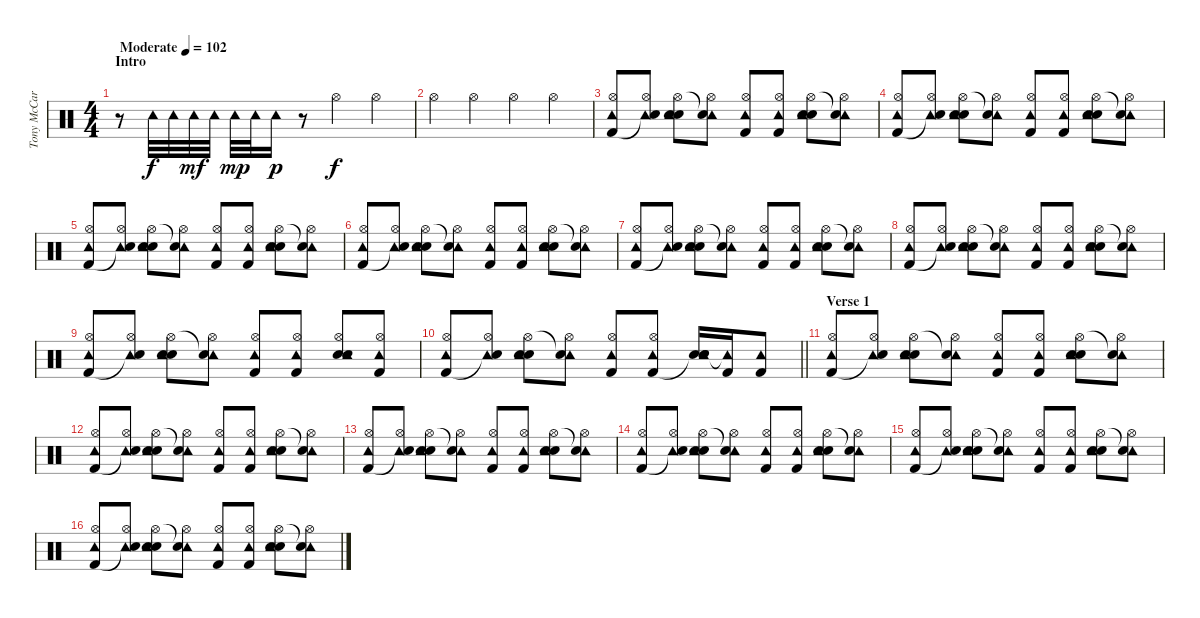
\track ("Tony McCaroll" "Tony McCar") {instrument percussion}
\staff {score}
\articulation defaults
\ts (4 4)
\section ("" "Intro")
\tempo (102 "Moderate")
\clef neutral
\ks c
r.8{dy f} "Tambourine (hit)".32 "Tambourine (hit)".32 "Tambourine (hit)".32{dy mf} "Tambourine (hit)".32 "Tambourine (hit)".32{dy mp} "Tambourine (hit)".32 "Tambourine (hit)".16{dy p} r.8 "Hi-Hat (open)".4{dy f} "Hi-Hat (open)".4 |
"Hi-Hat (open)".4 "Hi-Hat (open)".4 "Hi-Hat (open)".4 "Hi-Hat (open)".4 |
("Tambourine (hit)" "Hi-Hat (open)" "Kick (hit) 2").8 ("Tambourine (hit)" "Hi-Hat (open)" "Snare (hit)"{t}).8 ("Hand Clap (hit)" "Tambourine (hit)" "Hi-Hat (open)" "Electric Snare (hit)").8 ("Tambourine (hit)" "Hi-Hat (open)" "Snare (hit)"{t}).8 ("Tambourine (hit)" "Hi-Hat (open)" "Kick (hit) 2").8 ("Tambourine (hit)" "Hi-Hat (open)" "Kick (hit) 2").8 ("Hand Clap (hit)" "Tambourine (hit)" "Hi-Hat (open)" "Electric Snare (hit)").8 ("Tambourine (hit)" "Hi-Hat (open)" "Snare (hit)"{t}).8 |
("Tambourine (hit)" "Hi-Hat (open)" "Kick (hit) 2").8 ("Tambourine (hit)" "Hi-Hat (open)" "Snare (hit)"{t}).8 ("Hand Clap (hit)" "Tambourine (hit)" "Hi-Hat (open)" "Electric Snare (hit)").8 ("Tambourine (hit)" "Hi-Hat (open)" "Snare (hit)"{t}).8 ("Tambourine (hit)" "Hi-Hat (open)" "Kick (hit) 2").8 ("Tambourine (hit)" "Hi-Hat (open)" "Kick (hit) 2").8 ("Hand Clap (hit)" "Tambourine (hit)" "Hi-Hat (open)" "Electric Snare (hit)").8 ("Tambourine (hit)" "Hi-Hat (open)" "Snare (hit)"{t}).8 |
("Tambourine (hit)" "Hi-Hat (open)" "Kick (hit) 2").8 ("Tambourine (hit)" "Hi-Hat (open)" "Snare (hit)"{t}).8 ("Hand Clap (hit)" "Tambourine (hit)" "Hi-Hat (open)" "Electric Snare (hit)").8 ("Tambourine (hit)" "Hi-Hat (open)" "Snare (hit)"{t}).8 ("Tambourine (hit)" "Hi-Hat (open)" "Kick (hit) 2").8 ("Tambourine (hit)" "Hi-Hat (open)" "Kick (hit) 2").8 ("Hand Clap (hit)" "Tambourine (hit)" "Hi-Hat (open)" "Electric Snare (hit)").8 ("Tambourine (hit)" "Hi-Hat (open)" "Snare (hit)"{t}).8 |
("Tambourine (hit)" "Hi-Hat (open)" "Kick (hit) 2").8 ("Tambourine (hit)" "Hi-Hat (open)" "Snare (hit)"{t}).8 ("Hand Clap (hit)" "Tambourine (hit)" "Hi-Hat (open)" "Electric Snare (hit)").8 ("Tambourine (hit)" "Hi-Hat (open)" "Snare (hit)"{t}).8 ("Tambourine (hit)" "Hi-Hat (open)" "Kick (hit) 2").8 ("Tambourine (hit)" "Hi-Hat (open)" "Kick (hit) 2").8 ("Hand Clap (hit)" "Tambourine (hit)" "Hi-Hat (open)" "Electric Snare (hit)").8 ("Tambourine (hit)" "Hi-Hat (open)" "Snare (hit)"{t}).8 |
("Tambourine (hit)" "Hi-Hat (open)" "Kick (hit) 2").8 ("Tambourine (hit)" "Hi-Hat (open)" "Snare (hit)"{t}).8 ("Hand Clap (hit)" "Tambourine (hit)" "Hi-Hat (open)" "Electric Snare (hit)").8 ("Tambourine (hit)" "Hi-Hat (open)" "Snare (hit)"{t}).8 ("Tambourine (hit)" "Hi-Hat (open)" "Kick (hit) 2").8 ("Tambourine (hit)" "Hi-Hat (open)" "Kick (hit) 2").8 ("Hand Clap (hit)" "Tambourine (hit)" "Hi-Hat (open)" "Electric Snare (hit)").8 ("Tambourine (hit)" "Hi-Hat (open)" "Snare (hit)"{t}).8 |
("Tambourine (hit)" "Hi-Hat (open)" "Kick (hit) 2").8 ("Tambourine (hit)" "Hi-Hat (open)" "Snare (hit)"{t}).8 ("Hand Clap (hit)" "Tambourine (hit)" "Hi-Hat (open)" "Electric Snare (hit)").8 ("Tambourine (hit)" "Hi-Hat (open)" "Snare (hit)"{t}).8 ("Tambourine (hit)" "Hi-Hat (open)" "Kick (hit) 2").8 ("Tambourine (hit)" "Hi-Hat (open)" "Kick (hit) 2").8 ("Hand Clap (hit)" "Tambourine (hit)" "Hi-Hat (open)" "Electric Snare (hit)").8 ("Tambourine (hit)" "Hi-Hat (open)" "Snare (hit)"{t}).8 |
("Tambourine (hit)" "Hi-Hat (open)" "Kick (hit) 2").8 ("Tambourine (hit)" "Hi-Hat (open)" "Snare (hit)"{t}).8 ("Hand Clap (hit)" "Tambourine (hit)" "Hi-Hat (open)" "Electric Snare (hit)").8 ("Tambourine (hit)" "Hi-Hat (open)" "Snare (hit)"{t}).8 ("Tambourine (hit)" "Hi-Hat (open)" "Kick (hit) 2").8 ("Tambourine (hit)" "Hi-Hat (open)" "Kick (hit) 2").8 ("Hand Clap (hit)" "Tambourine (hit)" "Hi-Hat (open)" "Electric Snare (hit)").8 ("Tambourine (hit)" "Hi-Hat (open)" "Kick (hit) 2").8 |
\barLineRight lightlight
("Tambourine (hit)" "Hi-Hat (open)" "Kick (hit) 2").8 ("Tambourine (hit)" "Hi-Hat (open)" "Snare (hit)"{t}).8 ("Hand Clap (hit)" "Tambourine (hit)" "Hi-Hat (open)" "Electric Snare (hit)").8 ("Tambourine (hit)" "Hi-Hat (open)" "Snare (hit)"{t}).8 ("Tambourine (hit)" "Hi-Hat (open)" "Kick (hit) 2").8 ("Tambourine (hit)" "Hi-Hat (open)" "Kick (hit) 2").8 ("Hand Clap (hit)" "Tambourine (hit)" "Electric Snare (hit)"{t} "Electric Snare (hit)").16 ("Tambourine (hit)"{t} "Kick (hit) 2").16 ("Tambourine (hit)" "Kick (hit) 2").8 |
\section ("" "Verse 1")
("Tambourine (hit)" "Hi-Hat (open)" "Kick (hit) 2").8 ("Tambourine (hit)" "Hi-Hat (open)" "Snare (hit)"{t}).8 ("Hand Clap (hit)" "Tambourine (hit)" "Hi-Hat (open)" "Electric Snare (hit)").8 ("Tambourine (hit)" "Hi-Hat (open)" "Snare (hit)"{t}).8 ("Tambourine (hit)" "Hi-Hat (open)" "Kick (hit) 2").8 ("Tambourine (hit)" "Hi-Hat (open)" "Kick (hit) 2").8 ("Hand Clap (hit)" "Tambourine (hit)" "Hi-Hat (open)" "Electric Snare (hit)").8 ("Tambourine (hit)" "Hi-Hat (open)" "Snare (hit)"{t}).8 |
("Tambourine (hit)" "Hi-Hat (open)" "Kick (hit) 2").8 ("Tambourine (hit)" "Hi-Hat (open)" "Snare (hit)"{t}).8 ("Hand Clap (hit)" "Tambourine (hit)" "Hi-Hat (open)" "Electric Snare (hit)").8 ("Tambourine (hit)" "Hi-Hat (open)" "Snare (hit)"{t}).8 ("Tambourine (hit)" "Hi-Hat (open)" "Kick (hit) 2").8 ("Tambourine (hit)" "Hi-Hat (open)" "Kick (hit) 2").8 ("Hand Clap (hit)" "Tambourine (hit)" "Hi-Hat (open)" "Electric Snare (hit)").8 ("Tambourine (hit)" "Hi-Hat (open)" "Snare (hit)"{t}).8 |
("Tambourine (hit)" "Hi-Hat (open)" "Kick (hit) 2").8 ("Tambourine (hit)" "Hi-Hat (open)" "Snare (hit)"{t}).8 ("Hand Clap (hit)" "Tambourine (hit)" "Hi-Hat (open)" "Electric Snare (hit)").8 ("Tambourine (hit)" "Hi-Hat (open)" "Snare (hit)"{t}).8 ("Tambourine (hit)" "Hi-Hat (open)" "Kick (hit) 2").8 ("Tambourine (hit)" "Hi-Hat (open)" "Kick (hit) 2").8 ("Hand Clap (hit)" "Tambourine (hit)" "Hi-Hat (open)" "Electric Snare (hit)").8 ("Tambourine (hit)" "Hi-Hat (open)" "Snare (hit)"{t}).8 |
("Tambourine (hit)" "Hi-Hat (open)" "Kick (hit) 2").8 ("Tambourine (hit)" "Hi-Hat (open)" "Snare (hit)"{t}).8 ("Hand Clap (hit)" "Tambourine (hit)" "Hi-Hat (open)" "Electric Snare (hit)").8 ("Tambourine (hit)" "Hi-Hat (open)" "Snare (hit)"{t}).8 ("Tambourine (hit)" "Hi-Hat (open)" "Kick (hit) 2").8 ("Tambourine (hit)" "Hi-Hat (open)" "Kick (hit) 2").8 ("Hand Clap (hit)" "Tambourine (hit)" "Hi-Hat (open)" "Electric Snare (hit)").8 ("Tambourine (hit)" "Hi-Hat (open)" "Snare (hit)"{t}).8 |
("Tambourine (hit)" "Hi-Hat (open)" "Kick (hit) 2").8 ("Tambourine (hit)" "Hi-Hat (open)" "Snare (hit)"{t}).8 ("Hand Clap (hit)" "Tambourine (hit)" "Hi-Hat (open)" "Electric Snare (hit)").8 ("Tambourine (hit)" "Hi-Hat (open)" "Snare (hit)"{t}).8 ("Tambourine (hit)" "Hi-Hat (open)" "Kick (hit) 2").8 ("Tambourine (hit)" "Hi-Hat (open)" "Kick (hit) 2").8 ("Hand Clap (hit)" "Tambourine (hit)" "Hi-Hat (open)" "Electric Snare (hit)").8 ("Tambourine (hit)" "Hi-Hat (open)" "Snare (hit)"{t}).8 |
("Tambourine (hit)" "Hi-Hat (open)" "Kick (hit) 2").8 ("Tambourine (hit)" "Hi-Hat (open)" "Snare (hit)"{t}).8 ("Hand Clap (hit)" "Tambourine (hit)" "Hi-Hat (open)" "Electric Snare (hit)").8 ("Tambourine (hit)" "Hi-Hat (open)" "Snare (hit)"{t}).8 ("Tambourine (hit)" "Hi-Hat (open)" "Kick (hit) 2").8 ("Tambourine (hit)" "Hi-Hat (open)" "Kick (hit) 2").8 ("Hand Clap (hit)" "Tambourine (hit)" "Hi-Hat (open)" "Electric Snare (hit)").8 ("Tambourine (hit)" "Hi-Hat (open)" "Snare (hit)"{t}).8
